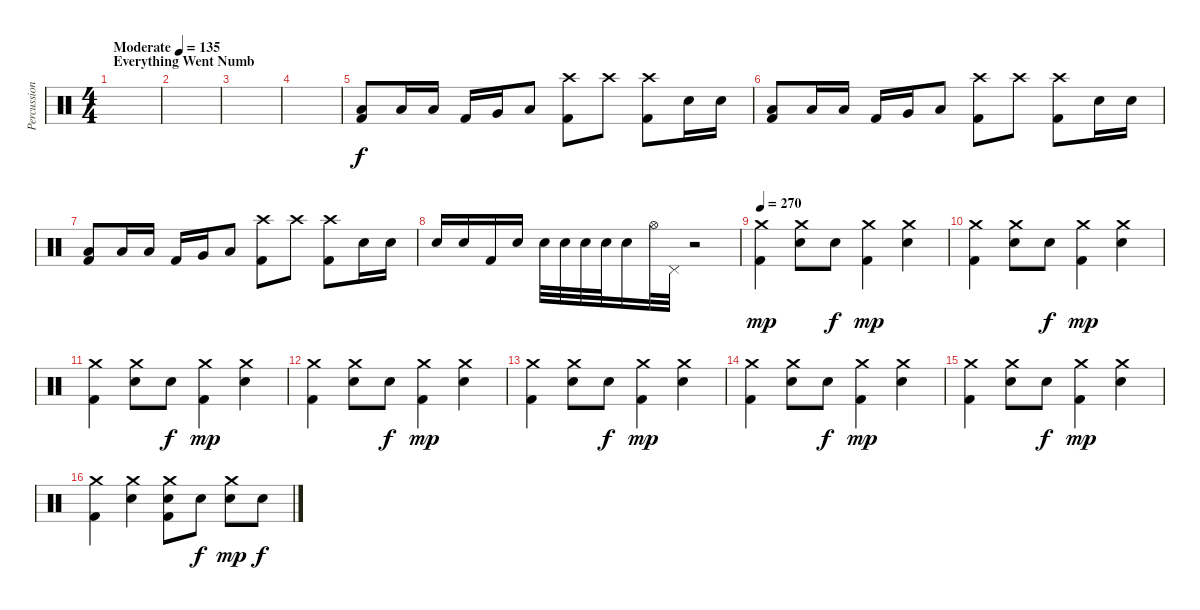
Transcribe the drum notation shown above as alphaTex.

\track ("Percussion" "Percussion") {instrument percussion}
\staff {score}
\articulation defaults
\ts (4 4)
\section ("" "Everything Went Numb")
\tempo (135 "Moderate")
\clef neutral
\ks c
|
|
|
|
("Low Tom (hit)" "Kick (hit) 2").8 "Low Tom (hit)".16 "Low Tom (hit)".16 "Kick (hit) 2".16 "Very Low Tom (hit)".16 "Low Floor Tom (hit)".8 ("Crash high (hit)" "Kick (hit) 2").8 "Crash high (hit)".8 ("Crash high (hit)" "Kick (hit) 2").8 "Electric Snare (hit)".16 "Electric Snare (hit)".16 |
("Low Tom (hit)" "Kick (hit) 2").8 "Low Tom (hit)".16 "Low Tom (hit)".16 "Kick (hit) 2".16 "Very Low Tom (hit)".16 "Low Floor Tom (hit)".8 ("Crash high (hit)" "Kick (hit) 2").8 "Crash high (hit)".8 ("Crash high (hit)" "Kick (hit) 2").8 "Electric Snare (hit)".16 "Electric Snare (hit)".16 |
("Low Tom (hit)" "Kick (hit) 2").8 "Low Tom (hit)".16 "Low Tom (hit)".16 "Kick (hit) 2".16 "Very Low Tom (hit)".16 "Low Floor Tom (hit)".8 ("Crash high (hit)" "Kick (hit) 2").8 "Crash high (hit)".8 ("Crash high (hit)" "Kick (hit) 2").8 "Electric Snare (hit)".16 "Electric Snare (hit)".16 |
"Electric Snare (hit)".16 "Electric Snare (hit)".16 "Kick (hit) 2".16 "Electric Snare (hit)".16 "Electric Snare (hit)".32 "Electric Snare (hit)".32 "Electric Snare (hit)".32 "Electric Snare (hit)".32 "Electric Snare (hit)".16 "Hi-Hat (open)".32 "Pedal Hi-Hat (hit)".32 r.2 |
\tempo 270
("Crash medium (hit)" "Kick (hit) 2").4{dy mp} ("Crash medium (hit)" "Electric Snare (hit)").8 "Electric Snare (hit)".8{dy f} ("Crash medium (hit)" "Kick (hit) 2").4{dy mp} ("Crash medium (hit)" "Electric Snare (hit)").4 |
("Crash medium (hit)" "Kick (hit) 2").4 ("Crash medium (hit)" "Electric Snare (hit)").8 "Electric Snare (hit)".8{dy f} ("Crash medium (hit)" "Kick (hit) 2").4{dy mp} ("Crash medium (hit)" "Electric Snare (hit)").4 |
("Crash medium (hit)" "Kick (hit) 2").4 ("Crash medium (hit)" "Electric Snare (hit)").8 "Electric Snare (hit)".8{dy f} ("Crash medium (hit)" "Kick (hit) 2").4{dy mp} ("Crash medium (hit)" "Electric Snare (hit)").4 |
("Crash medium (hit)" "Kick (hit) 2").4 ("Crash medium (hit)" "Electric Snare (hit)").8 "Electric Snare (hit)".8{dy f} ("Crash medium (hit)" "Kick (hit) 2").4{dy mp} ("Crash medium (hit)" "Electric Snare (hit)").4 |
("Crash medium (hit)" "Kick (hit) 2").4 ("Crash medium (hit)" "Electric Snare (hit)").8 "Electric Snare (hit)".8{dy f} ("Crash medium (hit)" "Kick (hit) 2").4{dy mp} ("Crash medium (hit)" "Electric Snare (hit)").4 |
("Crash medium (hit)" "Kick (hit) 2").4 ("Crash medium (hit)" "Electric Snare (hit)").8 "Electric Snare (hit)".8{dy f} ("Crash medium (hit)" "Kick (hit) 2").4{dy mp} ("Crash medium (hit)" "Electric Snare (hit)").4 |
("Crash medium (hit)" "Kick (hit) 2").4 ("Crash medium (hit)" "Electric Snare (hit)").8 "Electric Snare (hit)".8{dy f} ("Crash medium (hit)" "Kick (hit) 2").4{dy mp} ("Crash medium (hit)" "Electric Snare (hit)").4 |
("Crash medium (hit)" "Kick (hit) 2").4 ("Crash medium (hit)" "Electric Snare (hit)").4 ("Crash medium (hit)" "Electric Snare (hit)" "Kick (hit) 2").8 "Electric Snare (hit)".8{dy f} ("Crash medium (hit)" "Electric Snare (hit)").8{dy mp} "Electric Snare (hit)".8{dy f}
